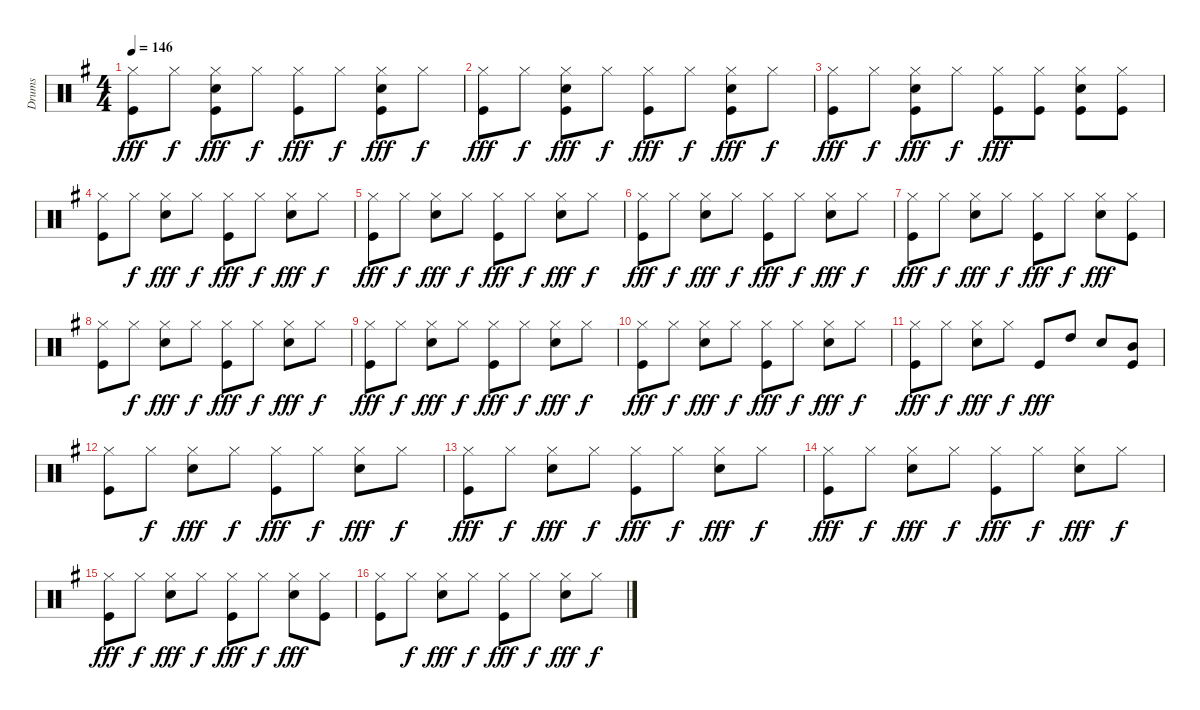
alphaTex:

\track ("Drums" "Drums") {instrument percussion}
\staff {score}
\articulation defaults
\ts (4 4)
\tempo 146
\clef neutral
\ks g
("Hi-Hat (closed)" "Kick (hit)").8{dy fff} "Hi-Hat (closed)".8{dy f} ("Hi-Hat (closed)" "Snare (hit) 2" "Kick (hit)").8{dy fff} "Hi-Hat (closed)".8{dy f} ("Hi-Hat (closed)" "Kick (hit)").8{dy fff} "Hi-Hat (closed)".8{dy f} ("Hi-Hat (closed)" "Snare (hit) 2" "Kick (hit)").8{dy fff} "Hi-Hat (closed)".8{dy f} |
("Hi-Hat (closed)" "Kick (hit)").8{dy fff} "Hi-Hat (closed)".8{dy f} ("Hi-Hat (closed)" "Snare (hit) 2" "Kick (hit)").8{dy fff} "Hi-Hat (closed)".8{dy f} ("Hi-Hat (closed)" "Kick (hit)").8{dy fff} "Hi-Hat (closed)".8{dy f} ("Hi-Hat (closed)" "Snare (hit) 2" "Kick (hit)").8{dy fff} "Hi-Hat (closed)".8{dy f} |
("Hi-Hat (closed)" "Kick (hit)").8{dy fff} "Hi-Hat (closed)".8{dy f} ("Hi-Hat (closed)" "Snare (hit) 2" "Kick (hit)").8{dy fff} "Hi-Hat (closed)".8{dy f} ("Hi-Hat (closed)" "Kick (hit)").8{dy fff} ("Hi-Hat (closed)" "Kick (hit)").8 ("Hi-Hat (closed)" "Snare (hit) 2" "Kick (hit)").8 ("Hi-Hat (closed)" "Kick (hit)").8 |
("Hi-Hat (closed)" "Kick (hit)").8 "Hi-Hat (closed)".8{dy f} ("Hi-Hat (closed)" "Snare (hit) 2").8{dy fff} "Hi-Hat (closed)".8{dy f} ("Hi-Hat (closed)" "Kick (hit)").8{dy fff} "Hi-Hat (closed)".8{dy f} ("Hi-Hat (closed)" "Snare (hit) 2").8{dy fff} "Hi-Hat (closed)".8{dy f} |
("Hi-Hat (closed)" "Kick (hit)").8{dy fff} "Hi-Hat (closed)".8{dy f} ("Hi-Hat (closed)" "Snare (hit) 2").8{dy fff} "Hi-Hat (closed)".8{dy f} ("Hi-Hat (closed)" "Kick (hit)").8{dy fff} "Hi-Hat (closed)".8{dy f} ("Hi-Hat (closed)" "Snare (hit) 2").8{dy fff} "Hi-Hat (closed)".8{dy f} |
("Hi-Hat (closed)" "Kick (hit)").8{dy fff} "Hi-Hat (closed)".8{dy f} ("Hi-Hat (closed)" "Snare (hit) 2").8{dy fff} "Hi-Hat (closed)".8{dy f} ("Hi-Hat (closed)" "Kick (hit)").8{dy fff} "Hi-Hat (closed)".8{dy f} ("Hi-Hat (closed)" "Snare (hit) 2").8{dy fff} "Hi-Hat (closed)".8{dy f} |
("Hi-Hat (closed)" "Kick (hit)").8{dy fff} "Hi-Hat (closed)".8{dy f} ("Hi-Hat (closed)" "Snare (hit) 2").8{dy fff} "Hi-Hat (closed)".8{dy f} ("Hi-Hat (closed)" "Kick (hit)").8{dy fff} "Hi-Hat (closed)".8{dy f} ("Hi-Hat (closed)" "Snare (hit) 2").8{dy fff} ("Hi-Hat (closed)" "Kick (hit)").8 |
("Hi-Hat (closed)" "Kick (hit)").8 "Hi-Hat (closed)".8{dy f} ("Hi-Hat (closed)" "Snare (hit) 2").8{dy fff} "Hi-Hat (closed)".8{dy f} ("Hi-Hat (closed)" "Kick (hit)").8{dy fff} "Hi-Hat (closed)".8{dy f} ("Hi-Hat (closed)" "Snare (hit) 2").8{dy fff} "Hi-Hat (closed)".8{dy f} |
("Hi-Hat (closed)" "Kick (hit)").8{dy fff} "Hi-Hat (closed)".8{dy f} ("Hi-Hat (closed)" "Snare (hit) 2").8{dy fff} "Hi-Hat (closed)".8{dy f} ("Hi-Hat (closed)" "Kick (hit)").8{dy fff} "Hi-Hat (closed)".8{dy f} ("Hi-Hat (closed)" "Snare (hit) 2").8{dy fff} "Hi-Hat (closed)".8{dy f} |
("Hi-Hat (closed)" "Kick (hit)").8{dy fff} "Hi-Hat (closed)".8{dy f} ("Hi-Hat (closed)" "Snare (hit) 2").8{dy fff} "Hi-Hat (closed)".8{dy f} ("Hi-Hat (closed)" "Kick (hit)").8{dy fff} "Hi-Hat (closed)".8{dy f} ("Hi-Hat (closed)" "Snare (hit) 2").8{dy fff} "Hi-Hat (closed)".8{dy f} |
("Hi-Hat (closed)" "Kick (hit)").8{dy fff} "Hi-Hat (closed)".8{dy f} ("Hi-Hat (closed)" "Snare (hit) 2").8{dy fff} "Hi-Hat (closed)".8{dy f} "Kick (hit)".8{dy fff} "High Tom (hit)".8 "Snare (hit) 2".8 ("Mid Tom (hit)" "Kick (hit)").8 |
("Hi-Hat (closed)" "Kick (hit)").8 "Hi-Hat (closed)".8{dy f} ("Hi-Hat (closed)" "Snare (hit) 2").8{dy fff} "Hi-Hat (closed)".8{dy f} ("Hi-Hat (closed)" "Kick (hit)").8{dy fff} "Hi-Hat (closed)".8{dy f} ("Hi-Hat (closed)" "Snare (hit) 2").8{dy fff} "Hi-Hat (closed)".8{dy f} |
("Hi-Hat (closed)" "Kick (hit)").8{dy fff} "Hi-Hat (closed)".8{dy f} ("Hi-Hat (closed)" "Snare (hit) 2").8{dy fff} "Hi-Hat (closed)".8{dy f} ("Hi-Hat (closed)" "Kick (hit)").8{dy fff} "Hi-Hat (closed)".8{dy f} ("Hi-Hat (closed)" "Snare (hit) 2").8{dy fff} "Hi-Hat (closed)".8{dy f} |
("Hi-Hat (closed)" "Kick (hit)").8{dy fff} "Hi-Hat (closed)".8{dy f} ("Hi-Hat (closed)" "Snare (hit) 2").8{dy fff} "Hi-Hat (closed)".8{dy f} ("Hi-Hat (closed)" "Kick (hit)").8{dy fff} "Hi-Hat (closed)".8{dy f} ("Hi-Hat (closed)" "Snare (hit) 2").8{dy fff} "Hi-Hat (closed)".8{dy f} |
("Hi-Hat (closed)" "Kick (hit)").8{dy fff} "Hi-Hat (closed)".8{dy f} ("Hi-Hat (closed)" "Snare (hit) 2").8{dy fff} "Hi-Hat (closed)".8{dy f} ("Hi-Hat (closed)" "Kick (hit)").8{dy fff} "Hi-Hat (closed)".8{dy f} ("Hi-Hat (closed)" "Snare (hit) 2").8{dy fff} ("Hi-Hat (closed)" "Kick (hit)").8 |
("Hi-Hat (closed)" "Kick (hit)").8 "Hi-Hat (closed)".8{dy f} ("Hi-Hat (closed)" "Snare (hit) 2").8{dy fff} "Hi-Hat (closed)".8{dy f} ("Hi-Hat (closed)" "Kick (hit)").8{dy fff} "Hi-Hat (closed)".8{dy f} ("Hi-Hat (closed)" "Snare (hit) 2").8{dy fff} "Hi-Hat (closed)".8{dy f}
